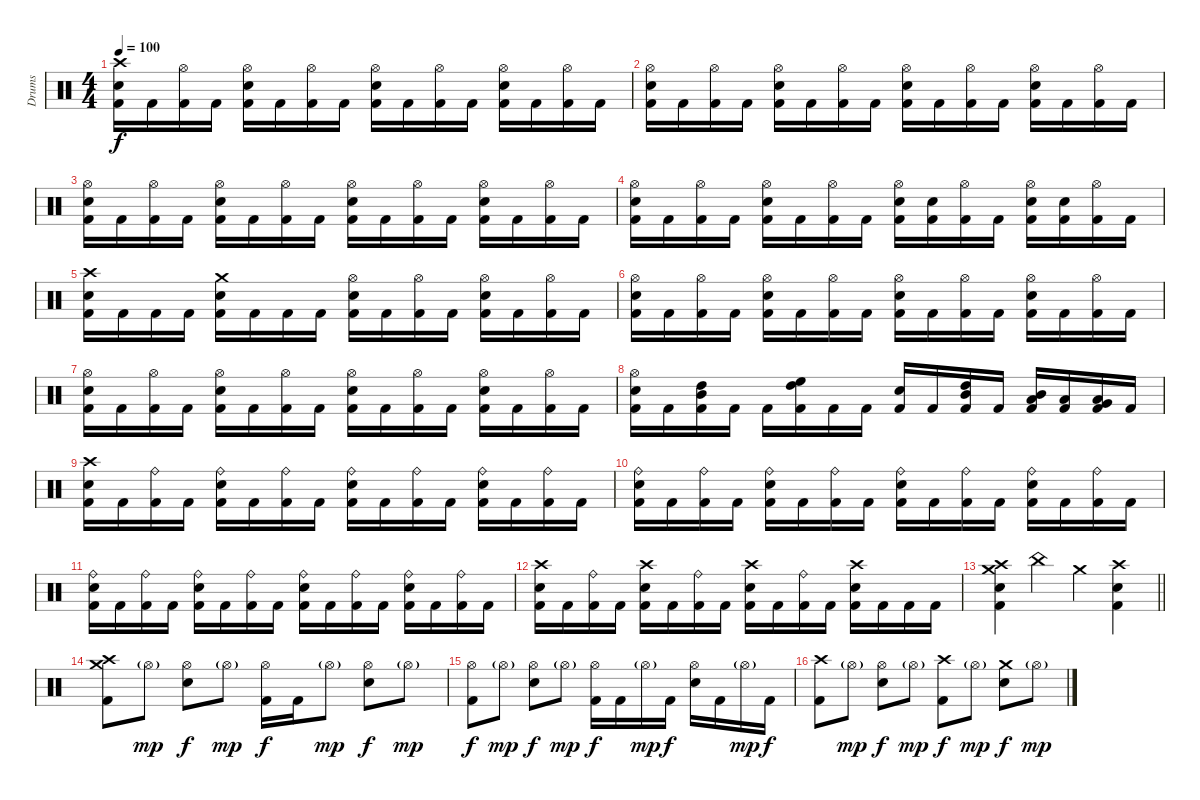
\track ("Drums" "Drums") {instrument percussion}
\staff {score}
\articulation defaults
\ts (4 4)
\tempo 100
\clef neutral
\ks c
("Crash high (hit)" "Electric Snare (hit)" "Kick (hit) 2").16{dy f} "Kick (hit) 2".16 ("Hi-Hat (open)" "Kick (hit) 2").16 "Kick (hit) 2".16 ("Hi-Hat (open)" "Electric Snare (hit)" "Kick (hit) 2").16 "Kick (hit) 2".16 ("Hi-Hat (open)" "Kick (hit) 2").16 "Kick (hit) 2".16 ("Hi-Hat (open)" "Electric Snare (hit)" "Kick (hit) 2").16 "Kick (hit) 2".16 ("Hi-Hat (open)" "Kick (hit) 2").16 "Kick (hit) 2".16 ("Hi-Hat (open)" "Electric Snare (hit)" "Kick (hit) 2").16 "Kick (hit) 2".16 ("Hi-Hat (open)" "Kick (hit) 2").16 "Kick (hit) 2".16 |
("Hi-Hat (open)" "Electric Snare (hit)" "Kick (hit) 2").16 "Kick (hit) 2".16 ("Hi-Hat (open)" "Kick (hit) 2").16 "Kick (hit) 2".16 ("Hi-Hat (open)" "Electric Snare (hit)" "Kick (hit) 2").16 "Kick (hit) 2".16 ("Hi-Hat (open)" "Kick (hit) 2").16 "Kick (hit) 2".16 ("Hi-Hat (open)" "Electric Snare (hit)" "Kick (hit) 2").16 "Kick (hit) 2".16 ("Hi-Hat (open)" "Kick (hit) 2").16 "Kick (hit) 2".16 ("Hi-Hat (open)" "Electric Snare (hit)" "Kick (hit) 2").16 "Kick (hit) 2".16 ("Hi-Hat (open)" "Kick (hit) 2").16 "Kick (hit) 2".16 |
("Hi-Hat (open)" "Electric Snare (hit)" "Kick (hit) 2").16 "Kick (hit) 2".16 ("Hi-Hat (open)" "Kick (hit) 2").16 "Kick (hit) 2".16 ("Hi-Hat (open)" "Electric Snare (hit)" "Kick (hit) 2").16 "Kick (hit) 2".16 ("Hi-Hat (open)" "Kick (hit) 2").16 "Kick (hit) 2".16 ("Hi-Hat (open)" "Electric Snare (hit)" "Kick (hit) 2").16 "Kick (hit) 2".16 ("Hi-Hat (open)" "Kick (hit) 2").16 "Kick (hit) 2".16 ("Hi-Hat (open)" "Electric Snare (hit)" "Kick (hit) 2").16 "Kick (hit) 2".16 ("Hi-Hat (open)" "Kick (hit) 2").16 "Kick (hit) 2".16 |
("Hi-Hat (open)" "Electric Snare (hit)" "Kick (hit) 2").16 "Kick (hit) 2".16 ("Hi-Hat (open)" "Kick (hit) 2").16 "Kick (hit) 2".16 ("Hi-Hat (open)" "Electric Snare (hit)" "Kick (hit) 2").16 "Kick (hit) 2".16 ("Hi-Hat (open)" "Kick (hit) 2").16 "Kick (hit) 2".16 ("Hi-Hat (open)" "Electric Snare (hit)" "Kick (hit) 2").16 ("Electric Snare (hit)" "Kick (hit) 2").16 ("Hi-Hat (open)" "Kick (hit) 2").16 "Kick (hit) 2".16 ("Hi-Hat (open)" "Electric Snare (hit)" "Kick (hit) 2").16 ("Electric Snare (hit)" "Kick (hit) 2").16 ("Hi-Hat (open)" "Kick (hit) 2").16 "Kick (hit) 2".16 |
("Crash high (hit)" "Electric Snare (hit)" "Kick (hit) 2").16 "Kick (hit) 2".16 "Kick (hit) 2".16 "Kick (hit) 2".16 ("Crash medium (hit)" "Electric Snare (hit)" "Kick (hit) 2").16 "Kick (hit) 2".16 "Kick (hit) 2".16 "Kick (hit) 2".16 ("Hi-Hat (open)" "Electric Snare (hit)" "Kick (hit) 2").16 "Kick (hit) 2".16 ("Hi-Hat (open)" "Kick (hit) 2").16 "Kick (hit) 2".16 ("Hi-Hat (open)" "Electric Snare (hit)" "Kick (hit) 2").16 "Kick (hit) 2".16 ("Hi-Hat (open)" "Kick (hit) 2").16 "Kick (hit) 2".16 |
("Hi-Hat (open)" "Electric Snare (hit)" "Kick (hit) 2").16 "Kick (hit) 2".16 ("Hi-Hat (open)" "Kick (hit) 2").16 "Kick (hit) 2".16 ("Hi-Hat (open)" "Electric Snare (hit)" "Kick (hit) 2").16 "Kick (hit) 2".16 ("Hi-Hat (open)" "Kick (hit) 2").16 "Kick (hit) 2".16 ("Hi-Hat (open)" "Electric Snare (hit)" "Kick (hit) 2").16 "Kick (hit) 2".16 ("Hi-Hat (open)" "Kick (hit) 2").16 "Kick (hit) 2".16 ("Hi-Hat (open)" "Electric Snare (hit)" "Kick (hit) 2").16 "Kick (hit) 2".16 ("Hi-Hat (open)" "Kick (hit) 2").16 "Kick (hit) 2".16 |
("Hi-Hat (open)" "Electric Snare (hit)" "Kick (hit) 2").16 "Kick (hit) 2".16 ("Hi-Hat (open)" "Kick (hit) 2").16 "Kick (hit) 2".16 ("Hi-Hat (open)" "Electric Snare (hit)" "Kick (hit) 2").16 "Kick (hit) 2".16 ("Hi-Hat (open)" "Kick (hit) 2").16 "Kick (hit) 2".16 ("Hi-Hat (open)" "Electric Snare (hit)" "Kick (hit) 2").16 "Kick (hit) 2".16 ("Hi-Hat (open)" "Kick (hit) 2").16 "Kick (hit) 2".16 ("Hi-Hat (open)" "Electric Snare (hit)" "Kick (hit) 2").16 "Kick (hit) 2".16 ("Hi-Hat (open)" "Kick (hit) 2").16 "Kick (hit) 2".16 |
("Hi-Hat (open)" "Electric Snare (hit)" "Kick (hit) 2").16 "Kick (hit) 2".16 ("High Tom (hit)" "Mid Tom (hit)" "Kick (hit) 2").16 "Kick (hit) 2".16 "Kick (hit) 2".16 ("High Floor Tom (hit)" "High Tom (hit)" "Kick (hit) 2").16 "Kick (hit) 2".16 "Kick (hit) 2".16 ("Electric Snare (hit)" "Kick (hit) 2").16 "Kick (hit) 2".16 ("High Tom (hit)" "Mid Tom (hit)" "Kick (hit) 2").16 "Kick (hit) 2".16 ("Mid Tom (hit)" "Low Tom (hit)" "Kick (hit) 2").16 ("Low Tom (hit)" "Kick (hit) 2").16 ("Low Tom (hit)" "Very Low Tom (hit)" "Kick (hit) 2").16 "Kick (hit) 2".16 |
("Crash high (hit)" "Electric Snare (hit)" "Kick (hit) 2").16 "Kick (hit) 2".16 ("Ride (bell)" "Kick (hit) 2").16 "Kick (hit) 2".16 ("Ride (bell)" "Electric Snare (hit)" "Kick (hit) 2").16 "Kick (hit) 2".16 ("Ride (bell)" "Kick (hit) 2").16 "Kick (hit) 2".16 ("Ride (bell)" "Electric Snare (hit)" "Kick (hit) 2").16 "Kick (hit) 2".16 ("Ride (bell)" "Kick (hit) 2").16 "Kick (hit) 2".16 ("Ride (bell)" "Electric Snare (hit)" "Kick (hit) 2").16 "Kick (hit) 2".16 ("Ride (bell)" "Kick (hit) 2").16 "Kick (hit) 2".16 |
("Ride (bell)" "Electric Snare (hit)" "Kick (hit) 2").16 "Kick (hit) 2".16 ("Ride (bell)" "Kick (hit) 2").16 "Kick (hit) 2".16 ("Ride (bell)" "Electric Snare (hit)" "Kick (hit) 2").16 "Kick (hit) 2".16 ("Ride (bell)" "Kick (hit) 2").16 "Kick (hit) 2".16 ("Ride (bell)" "Electric Snare (hit)" "Kick (hit) 2").16 "Kick (hit) 2".16 ("Ride (bell)" "Kick (hit) 2").16 "Kick (hit) 2".16 ("Ride (bell)" "Electric Snare (hit)" "Kick (hit) 2").16 "Kick (hit) 2".16 ("Ride (bell)" "Kick (hit) 2").16 "Kick (hit) 2".16 |
("Ride (bell)" "Electric Snare (hit)" "Kick (hit) 2").16 "Kick (hit) 2".16 ("Ride (bell)" "Kick (hit) 2").16 "Kick (hit) 2".16 ("Ride (bell)" "Electric Snare (hit)" "Kick (hit) 2").16 "Kick (hit) 2".16 ("Ride (bell)" "Kick (hit) 2").16 "Kick (hit) 2".16 ("Ride (bell)" "Electric Snare (hit)" "Kick (hit) 2").16 "Kick (hit) 2".16 ("Ride (bell)" "Kick (hit) 2").16 "Kick (hit) 2".16 ("Ride (bell)" "Electric Snare (hit)" "Kick (hit) 2").16 "Kick (hit) 2".16 ("Ride (bell)" "Kick (hit) 2").16 "Kick (hit) 2".16 |
("Crash high (hit)" "Electric Snare (hit)" "Kick (hit) 2").16 "Kick (hit) 2".16 ("Ride (bell)" "Kick (hit) 2").16 "Kick (hit) 2".16 ("Crash high (hit)" "Electric Snare (hit)" "Kick (hit) 2").16 "Kick (hit) 2".16 ("Ride (bell)" "Kick (hit) 2").16 "Kick (hit) 2".16 ("Crash high (hit)" "Electric Snare (hit)" "Kick (hit) 2").16 "Kick (hit) 2".16 ("Ride (bell)" "Kick (hit) 2").16 "Kick (hit) 2".16 ("Crash high (hit)" "Electric Snare (hit)" "Kick (hit) 2").16 "Kick (hit) 2".16 "Kick (hit) 2".16 "Kick (hit) 2".16 |
\barLineRight lightlight
("Crash high (hit)" "Crash medium (hit)" "Electric Snare (hit)" "Kick (hit) 2").4 "China (hit)".4 "Crash medium (hit)".4 ("Crash high (hit)" "Electric Snare (hit)" "Kick (hit) 2").4 |
("Crash high (hit)" "Crash medium (hit)" "Kick (hit) 2").8 "Hi-Hat (open)"{g}.8{dy mp} ("Hi-Hat (open)" "Electric Snare (hit)").8{dy f} "Hi-Hat (open)"{g}.8{dy mp} ("Hi-Hat (open)" "Kick (hit) 2").16{dy f} "Kick (hit) 2".16 "Hi-Hat (open)"{g}.8{dy mp} ("Hi-Hat (open)" "Electric Snare (hit)").8{dy f} "Hi-Hat (open)"{g}.8{dy mp} |
("Hi-Hat (open)" "Kick (hit) 2").8{dy f} "Hi-Hat (open)"{g}.8{dy mp} ("Hi-Hat (open)" "Electric Snare (hit)").8{dy f} "Hi-Hat (open)"{g}.8{dy mp} ("Hi-Hat (open)" "Kick (hit) 2").16{dy f} "Kick (hit) 2".16 "Hi-Hat (open)"{g}.16{dy mp} "Kick (hit) 2".16{dy f} ("Hi-Hat (open)" "Electric Snare (hit)").16 "Kick (hit) 2".16 "Hi-Hat (open)"{g}.16{dy mp} "Kick (hit) 2".16{dy f} |
("Crash high (hit)" "Kick (hit) 2").8 "Hi-Hat (open)"{g}.8{dy mp} ("Hi-Hat (open)" "Electric Snare (hit)").8{dy f} "Hi-Hat (open)"{g}.8{dy mp} ("Crash high (hit)" "Kick (hit) 2").8{dy f} "Hi-Hat (open)"{g}.8{dy mp} ("Crash medium (hit)" "Electric Snare (hit)").8{dy f} "Hi-Hat (open)"{g}.8{dy mp}
